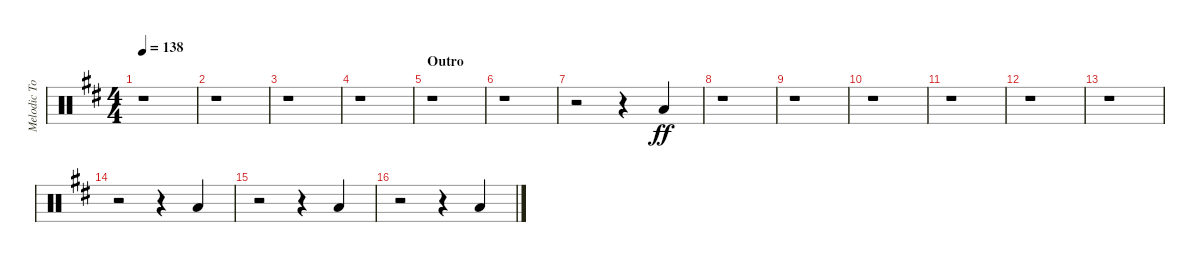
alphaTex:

\track ("Melodic Tom" "Melodic To") {instrument percussion}
\staff {score}
\articulation defaults
\ts (4 4)
\tempo 138
\clef neutral
\ks d
r.1{dy ff} |
r.1 |
r.1 |
r.1 |
\section ("" "Outro")
r.1 |
r.1 |
r.2 r.4 "Low Tom (hit)".4 |
r.1 |
r.1 |
r.1 |
r.1 |
r.1 |
r.1 |
r.2 r.4 "Low Tom (hit)".4 |
r.2 r.4 "Low Tom (hit)".4 |
r.2 r.4 "Low Tom (hit)".4
